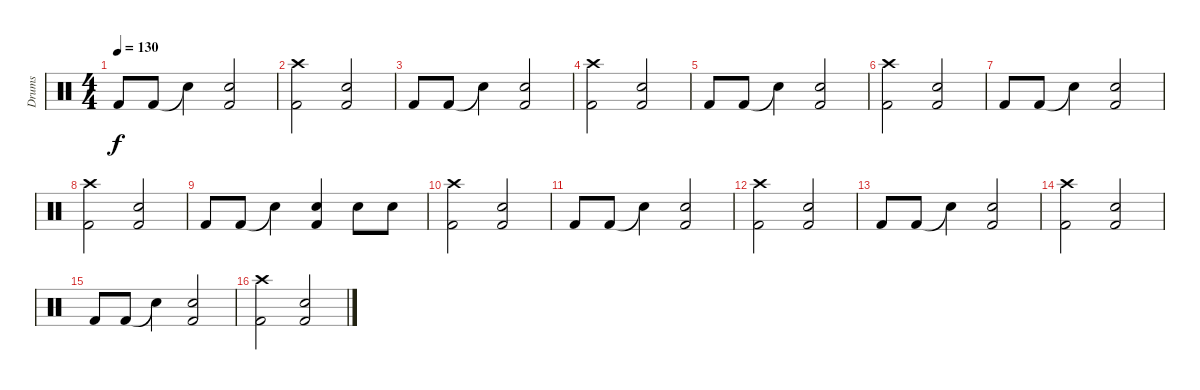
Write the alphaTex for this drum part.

\track ("Drums" "Drums") {instrument percussion}
\staff {score}
\articulation defaults
\ts (4 4)
\tempo 130
\clef neutral
\ks c "Kick (hit) 2".8{dy f} "Kick (hit) 2".8 "Snare (hit)"{t}.4
("Electric Snare (hit)" "Kick (hit) 2").2 |
("Crash high (hit)" "Kick (hit) 2").2 ("Electric Snare (hit)" "Kick (hit) 2").2 |
"Kick (hit) 2".8 "Kick (hit) 2".8 "Snare (hit)"{t}.4 ("Electric Snare (hit)" "Kick (hit) 2").2 |
("Crash high (hit)" "Kick (hit) 2").2 ("Electric Snare (hit)" "Kick (hit) 2").2 |
"Kick (hit) 2".8 "Kick (hit) 2".8 "Snare (hit)"{t}.4 ("Electric Snare (hit)" "Kick (hit) 2").2 |
("Crash high (hit)" "Kick (hit) 2").2 ("Electric Snare (hit)" "Kick (hit) 2").2 |
"Kick (hit) 2".8 "Kick (hit) 2".8 "Snare (hit)"{t}.4 ("Electric Snare (hit)" "Kick (hit) 2").2 |
("Crash high (hit)" "Kick (hit) 2").2 ("Electric Snare (hit)" "Kick (hit) 2").2 |
"Kick (hit) 2".8 "Kick (hit) 2".8 "Snare (hit)"{t}.4 ("Electric Snare (hit)" "Kick (hit) 2").4 "Electric Snare (hit)".8 "Electric Snare (hit)".8 |
("Crash high (hit)" "Kick (hit) 2").2 ("Electric Snare (hit)" "Kick (hit) 2").2 |
"Kick (hit) 2".8 "Kick (hit) 2".8 "Snare (hit)"{t}.4 ("Electric Snare (hit)" "Kick (hit) 2").2 |
("Crash high (hit)" "Kick (hit) 2").2 ("Electric Snare (hit)" "Kick (hit) 2").2 |
"Kick (hit) 2".8 "Kick (hit) 2".8 "Snare (hit)"{t}.4 ("Electric Snare (hit)" "Kick (hit) 2").2 |
("Crash high (hit)" "Kick (hit) 2").2 ("Electric Snare (hit)" "Kick (hit) 2").2 |
"Kick (hit) 2".8 "Kick (hit) 2".8 "Snare (hit)"{t}.4 ("Electric Snare (hit)" "Kick (hit) 2").2 |
("Crash high (hit)" "Kick (hit) 2").2 ("Electric Snare (hit)" "Kick (hit) 2").2
